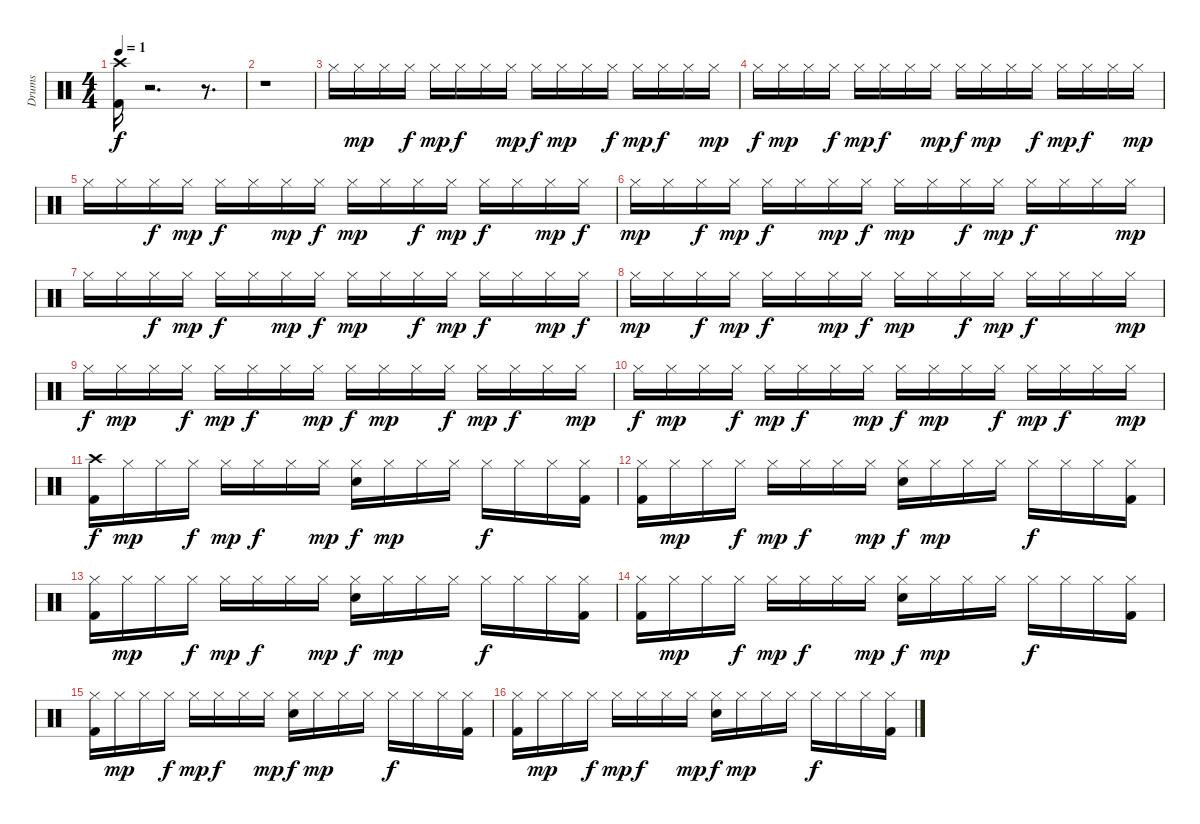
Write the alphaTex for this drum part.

\track ("Drums" "Drums") {instrument percussion}
\staff {score}
\articulation defaults
\ts (4 4)
\tempo 1
\clef neutral
\ks c
("Kick (hit) 2" "Crash high (hit)").16{dy f} r.2{d} r.8{d} |
r.1 |
"Hi-Hat (closed)".16 "Hi-Hat (closed)".16{dy mp} "Hi-Hat (closed)".16 "Hi-Hat (closed)".16{dy f} "Hi-Hat (closed)".16{dy mp} "Hi-Hat (closed)".16{dy f} "Hi-Hat (closed)".16 "Hi-Hat (closed)".16{dy mp} "Hi-Hat (closed)".16{dy f} "Hi-Hat (closed)".16{dy mp} "Hi-Hat (closed)".16 "Hi-Hat (closed)".16{dy f} "Hi-Hat (closed)".16{dy mp} "Hi-Hat (closed)".16{dy f} "Hi-Hat (closed)".16 "Hi-Hat (closed)".16{dy mp} |
"Hi-Hat (closed)".16{dy f} "Hi-Hat (closed)".16{dy mp} "Hi-Hat (closed)".16 "Hi-Hat (closed)".16{dy f} "Hi-Hat (closed)".16{dy mp} "Hi-Hat (closed)".16{dy f} "Hi-Hat (closed)".16 "Hi-Hat (closed)".16{dy mp} "Hi-Hat (closed)".16{dy f} "Hi-Hat (closed)".16{dy mp} "Hi-Hat (closed)".16 "Hi-Hat (closed)".16{dy f} "Hi-Hat (closed)".16{dy mp} "Hi-Hat (closed)".16{dy f} "Hi-Hat (closed)".16 "Hi-Hat (closed)".16{dy mp} |
"Hi-Hat (closed)".16 "Hi-Hat (closed)".16 "Hi-Hat (closed)".16{dy f} "Hi-Hat (closed)".16{dy mp} "Hi-Hat (closed)".16{dy f} "Hi-Hat (closed)".16 "Hi-Hat (closed)".16{dy mp} "Hi-Hat (closed)".16{dy f} "Hi-Hat (closed)".16{dy mp} "Hi-Hat (closed)".16 "Hi-Hat (closed)".16{dy f} "Hi-Hat (closed)".16{dy mp} "Hi-Hat (closed)".16{dy f} "Hi-Hat (closed)".16 "Hi-Hat (closed)".16{dy mp} "Hi-Hat (closed)".16{dy f} |
"Hi-Hat (closed)".16{dy mp} "Hi-Hat (closed)".16 "Hi-Hat (closed)".16{dy f} "Hi-Hat (closed)".16{dy mp} "Hi-Hat (closed)".16{dy f} "Hi-Hat (closed)".16 "Hi-Hat (closed)".16{dy mp} "Hi-Hat (closed)".16{dy f} "Hi-Hat (closed)".16{dy mp} "Hi-Hat (closed)".16 "Hi-Hat (closed)".16{dy f} "Hi-Hat (closed)".16{dy mp} "Hi-Hat (closed)".16{dy f} "Hi-Hat (closed)".16 "Hi-Hat (closed)".16 "Hi-Hat (closed)".16{dy mp} |
"Hi-Hat (closed)".16 "Hi-Hat (closed)".16 "Hi-Hat (closed)".16{dy f} "Hi-Hat (closed)".16{dy mp} "Hi-Hat (closed)".16{dy f} "Hi-Hat (closed)".16 "Hi-Hat (closed)".16{dy mp} "Hi-Hat (closed)".16{dy f} "Hi-Hat (closed)".16{dy mp} "Hi-Hat (closed)".16 "Hi-Hat (closed)".16{dy f} "Hi-Hat (closed)".16{dy mp} "Hi-Hat (closed)".16{dy f} "Hi-Hat (closed)".16 "Hi-Hat (closed)".16{dy mp} "Hi-Hat (closed)".16{dy f} |
"Hi-Hat (closed)".16{dy mp} "Hi-Hat (closed)".16 "Hi-Hat (closed)".16{dy f} "Hi-Hat (closed)".16{dy mp} "Hi-Hat (closed)".16{dy f} "Hi-Hat (closed)".16 "Hi-Hat (closed)".16{dy mp} "Hi-Hat (closed)".16{dy f} "Hi-Hat (closed)".16{dy mp} "Hi-Hat (closed)".16 "Hi-Hat (closed)".16{dy f} "Hi-Hat (closed)".16{dy mp} "Hi-Hat (closed)".16{dy f} "Hi-Hat (closed)".16 "Hi-Hat (closed)".16 "Hi-Hat (closed)".16{dy mp} |
"Hi-Hat (closed)".16{dy f} "Hi-Hat (closed)".16{dy mp} "Hi-Hat (closed)".16 "Hi-Hat (closed)".16{dy f} "Hi-Hat (closed)".16{dy mp} "Hi-Hat (closed)".16{dy f} "Hi-Hat (closed)".16 "Hi-Hat (closed)".16{dy mp} "Hi-Hat (closed)".16{dy f} "Hi-Hat (closed)".16{dy mp} "Hi-Hat (closed)".16 "Hi-Hat (closed)".16{dy f} "Hi-Hat (closed)".16{dy mp} "Hi-Hat (closed)".16{dy f} "Hi-Hat (closed)".16 "Hi-Hat (closed)".16{dy mp} |
"Hi-Hat (closed)".16{dy f} "Hi-Hat (closed)".16{dy mp} "Hi-Hat (closed)".16 "Hi-Hat (closed)".16{dy f} "Hi-Hat (closed)".16{dy mp} "Hi-Hat (closed)".16{dy f} "Hi-Hat (closed)".16 "Hi-Hat (closed)".16{dy mp} "Hi-Hat (closed)".16{dy f} "Hi-Hat (closed)".16{dy mp} "Hi-Hat (closed)".16 "Hi-Hat (closed)".16{dy f} "Hi-Hat (closed)".16{dy mp} "Hi-Hat (closed)".16{dy f} "Hi-Hat (closed)".16 "Hi-Hat (closed)".16{dy mp} |
("Kick (hit) 2" "Crash high (hit)").16{dy f} "Hi-Hat (closed)".16{dy mp} "Hi-Hat (closed)".16 "Hi-Hat (closed)".16{dy f} "Hi-Hat (closed)".16{dy mp} "Hi-Hat (closed)".16{dy f} "Hi-Hat (closed)".16 "Hi-Hat (closed)".16{dy mp} ("Snare (hit) 2" "Hi-Hat (closed)").16{dy f} "Hi-Hat (closed)".16{dy mp} "Hi-Hat (closed)".16 "Hi-Hat (closed)".16 "Hi-Hat (closed)".16{dy f} "Hi-Hat (closed)".16 "Hi-Hat (closed)".16 ("Kick (hit) 2" "Hi-Hat (closed)").16 |
("Kick (hit) 2" "Hi-Hat (closed)").16 "Hi-Hat (closed)".16{dy mp} "Hi-Hat (closed)".16 "Hi-Hat (closed)".16{dy f} "Hi-Hat (closed)".16{dy mp} "Hi-Hat (closed)".16{dy f} "Hi-Hat (closed)".16 "Hi-Hat (closed)".16{dy mp} ("Snare (hit) 2" "Hi-Hat (closed)").16{dy f} "Hi-Hat (closed)".16{dy mp} "Hi-Hat (closed)".16 "Hi-Hat (closed)".16 "Hi-Hat (closed)".16{dy f} "Hi-Hat (closed)".16 "Hi-Hat (closed)".16 ("Kick (hit) 2" "Hi-Hat (closed)").16 |
("Kick (hit) 2" "Hi-Hat (closed)").16 "Hi-Hat (closed)".16{dy mp} "Hi-Hat (closed)".16 "Hi-Hat (closed)".16{dy f} "Hi-Hat (closed)".16{dy mp} "Hi-Hat (closed)".16{dy f} "Hi-Hat (closed)".16 "Hi-Hat (closed)".16{dy mp} ("Snare (hit) 2" "Hi-Hat (closed)").16{dy f} "Hi-Hat (closed)".16{dy mp} "Hi-Hat (closed)".16 "Hi-Hat (closed)".16 "Hi-Hat (closed)".16{dy f} "Hi-Hat (closed)".16 "Hi-Hat (closed)".16 ("Kick (hit) 2" "Hi-Hat (closed)").16 |
("Kick (hit) 2" "Hi-Hat (closed)").16 "Hi-Hat (closed)".16{dy mp} "Hi-Hat (closed)".16 "Hi-Hat (closed)".16{dy f} "Hi-Hat (closed)".16{dy mp} "Hi-Hat (closed)".16{dy f} "Hi-Hat (closed)".16 "Hi-Hat (closed)".16{dy mp} ("Snare (hit) 2" "Hi-Hat (closed)").16{dy f} "Hi-Hat (closed)".16{dy mp} "Hi-Hat (closed)".16 "Hi-Hat (closed)".16 "Hi-Hat (closed)".16{dy f} "Hi-Hat (closed)".16 "Hi-Hat (closed)".16 ("Kick (hit) 2" "Hi-Hat (closed)").16 |
("Kick (hit) 2" "Hi-Hat (closed)").16 "Hi-Hat (closed)".16{dy mp} "Hi-Hat (closed)".16 "Hi-Hat (closed)".16{dy f} "Hi-Hat (closed)".16{dy mp} "Hi-Hat (closed)".16{dy f} "Hi-Hat (closed)".16 "Hi-Hat (closed)".16{dy mp} ("Snare (hit) 2" "Hi-Hat (closed)").16{dy f} "Hi-Hat (closed)".16{dy mp} "Hi-Hat (closed)".16 "Hi-Hat (closed)".16 "Hi-Hat (closed)".16{dy f} "Hi-Hat (closed)".16 "Hi-Hat (closed)".16 ("Kick (hit) 2" "Hi-Hat (closed)").16 |
("Kick (hit) 2" "Hi-Hat (closed)").16 "Hi-Hat (closed)".16{dy mp} "Hi-Hat (closed)".16 "Hi-Hat (closed)".16{dy f} "Hi-Hat (closed)".16{dy mp} "Hi-Hat (closed)".16{dy f} "Hi-Hat (closed)".16 "Hi-Hat (closed)".16{dy mp} ("Snare (hit) 2" "Hi-Hat (closed)").16{dy f} "Hi-Hat (closed)".16{dy mp} "Hi-Hat (closed)".16 "Hi-Hat (closed)".16 "Hi-Hat (closed)".16{dy f} "Hi-Hat (closed)".16 "Hi-Hat (closed)".16 ("Kick (hit) 2" "Hi-Hat (closed)").16
